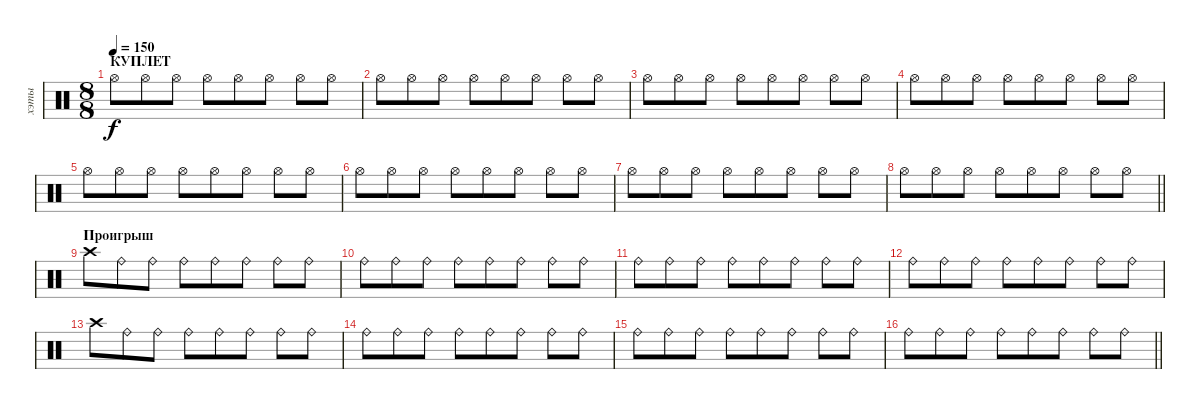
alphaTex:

\track ("хэты" "хэты") {instrument percussion}
\staff {score}
\articulation defaults
\ts (8 8)
\section ("" "КУПЛЕТ")
\tempo 150
\clef neutral
\ks c "Hi-Hat (open)".8{dy f} "Hi-Hat (open)".8 "Hi-Hat (open)".8 "Hi-Hat (open)".8 "Hi-Hat (open)".8 "Hi-Hat (open)".8 "Hi-Hat (open)".8 "Hi-Hat (open)".8
|
"Hi-Hat (open)".8 "Hi-Hat (open)".8 "Hi-Hat (open)".8 "Hi-Hat (open)".8 "Hi-Hat (open)".8 "Hi-Hat (open)".8 "Hi-Hat (open)".8 "Hi-Hat (open)".8 |
"Hi-Hat (open)".8 "Hi-Hat (open)".8 "Hi-Hat (open)".8 "Hi-Hat (open)".8 "Hi-Hat (open)".8 "Hi-Hat (open)".8 "Hi-Hat (open)".8 "Hi-Hat (open)".8 |
"Hi-Hat (open)".8 "Hi-Hat (open)".8 "Hi-Hat (open)".8 "Hi-Hat (open)".8 "Hi-Hat (open)".8 "Hi-Hat (open)".8 "Hi-Hat (open)".8 "Hi-Hat (open)".8 |
"Hi-Hat (open)".8 "Hi-Hat (open)".8 "Hi-Hat (open)".8 "Hi-Hat (open)".8 "Hi-Hat (open)".8 "Hi-Hat (open)".8 "Hi-Hat (open)".8 "Hi-Hat (open)".8 |
"Hi-Hat (open)".8 "Hi-Hat (open)".8 "Hi-Hat (open)".8 "Hi-Hat (open)".8 "Hi-Hat (open)".8 "Hi-Hat (open)".8 "Hi-Hat (open)".8 "Hi-Hat (open)".8 |
"Hi-Hat (open)".8 "Hi-Hat (open)".8 "Hi-Hat (open)".8 "Hi-Hat (open)".8 "Hi-Hat (open)".8 "Hi-Hat (open)".8 "Hi-Hat (open)".8 "Hi-Hat (open)".8 |
\barLineRight lightlight "Hi-Hat (open)".8 "Hi-Hat (open)".8 "Hi-Hat (open)".8 "Hi-Hat (open)".8 "Hi-Hat (open)".8 "Hi-Hat (open)".8 "Hi-Hat (open)".8 "Hi-Hat (open)".8
|
\section ("" "Проигрыш")
"Crash high (hit)".8 "Ride (bell)".8 "Ride (bell)".8 "Ride (bell)".8 "Ride (bell)".8 "Ride (bell)".8 "Ride (bell)".8 "Ride (bell)".8 |
"Ride (bell)".8 "Ride (bell)".8 "Ride (bell)".8 "Ride (bell)".8 "Ride (bell)".8 "Ride (bell)".8 "Ride (bell)".8 "Ride (bell)".8 |
"Ride (bell)".8 "Ride (bell)".8 "Ride (bell)".8 "Ride (bell)".8 "Ride (bell)".8 "Ride (bell)".8 "Ride (bell)".8 "Ride (bell)".8 |
"Ride (bell)".8 "Ride (bell)".8 "Ride (bell)".8 "Ride (bell)".8 "Ride (bell)".8 "Ride (bell)".8 "Ride (bell)".8 "Ride (bell)".8 |
"Crash high (hit)".8 "Ride (bell)".8 "Ride (bell)".8 "Ride (bell)".8 "Ride (bell)".8 "Ride (bell)".8 "Ride (bell)".8 "Ride (bell)".8 |
"Ride (bell)".8 "Ride (bell)".8 "Ride (bell)".8 "Ride (bell)".8 "Ride (bell)".8 "Ride (bell)".8 "Ride (bell)".8 "Ride (bell)".8 |
"Ride (bell)".8 "Ride (bell)".8 "Ride (bell)".8 "Ride (bell)".8 "Ride (bell)".8 "Ride (bell)".8 "Ride (bell)".8 "Ride (bell)".8 |
\barLineRight lightlight "Ride (bell)".8 "Ride (bell)".8 "Ride (bell)".8 "Ride (bell)".8 "Ride (bell)".8 "Ride (bell)".8 "Ride (bell)".8 "Ride (bell)".8
